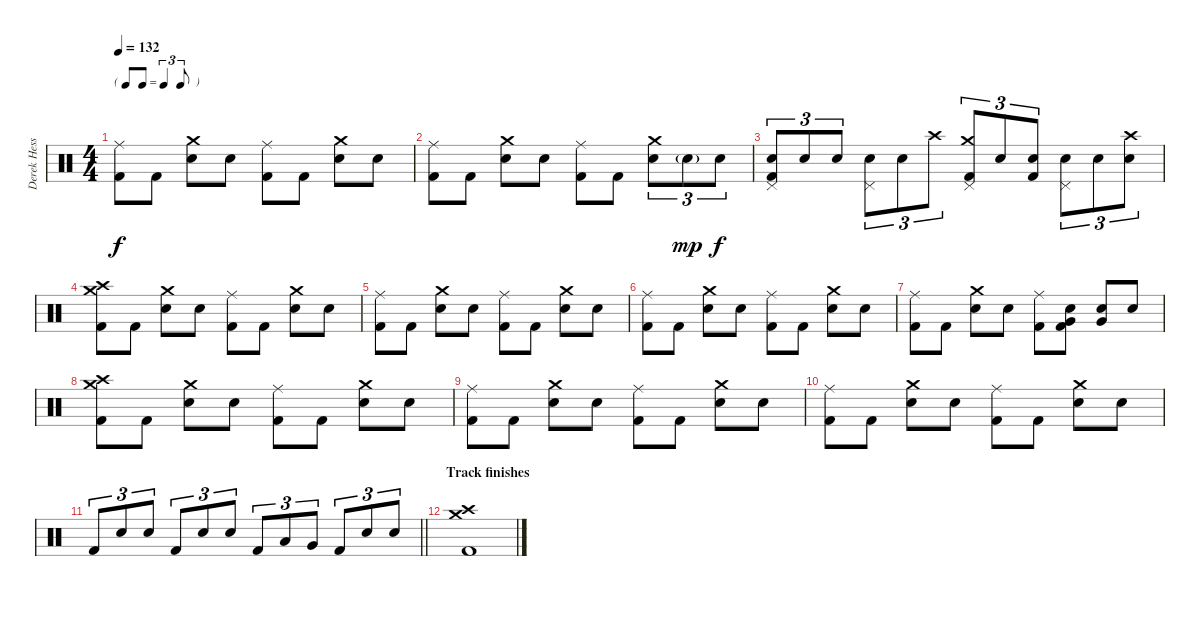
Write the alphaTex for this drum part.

\track ("Derek Hess (Drums and Percussion)" "Derek Hess") {instrument percussion}
\staff {score}
\articulation defaults
\ts (4 4)
\tf triplet8th
\tempo 132
\clef neutral
\ks c
("Ride (middle)" "Kick (hit) 2").8{dy f} "Kick (hit) 2".8 ("Crash medium (hit)" "Snare (hit) 2").8 "Snare (hit) 2".8 ("Ride (middle)" "Kick (hit) 2").8 "Kick (hit) 2".8 ("Crash medium (hit)" "Snare (hit) 2").8 "Snare (hit) 2".8 |
("Ride (middle)" "Kick (hit) 2").8 "Kick (hit) 2".8 ("Crash medium (hit)" "Snare (hit) 2").8 "Snare (hit) 2".8 ("Ride (middle)" "Kick (hit) 2").8 "Kick (hit) 2".8 ("Crash medium (hit)" "Snare (hit) 2").8{tu (3 2)} "Snare (hit) 2"{g}.8{tu (3 2) dy mp} "Snare (hit) 2".8{tu (3 2) dy f} |
("Snare (hit) 2" "Pedal Hi-Hat (hit)" "Kick (hit) 2").8{tu (3 2)} "Snare (hit) 2".8{tu (3 2)} "Snare (hit) 2".8{tu (3 2)} ("Snare (hit) 2" "Pedal Hi-Hat (hit)").8{tu (3 2)} "Snare (hit) 2".8{tu (3 2)} "Crash high (hit)".8{tu (3 2)} ("Crash medium (hit)" "Pedal Hi-Hat (hit)" "Kick (hit) 2").8{tu (3 2)} "Snare (hit) 2".8{tu (3 2)} ("Snare (hit) 2" "Kick (hit) 2").8{tu (3 2)} ("Snare (hit) 2" "Pedal Hi-Hat (hit)").8{tu (3 2)} "Snare (hit) 2".8{tu (3 2)} ("Crash high (hit)" "Snare (hit) 2").8{tu (3 2)} |
("Crash medium (hit)" "Crash high (hit)" "Kick (hit) 2").8 "Kick (hit) 2".8 ("Crash medium (hit)" "Snare (hit) 2").8 "Snare (hit) 2".8 ("Ride (middle)" "Kick (hit) 2").8 "Kick (hit) 2".8 ("Crash medium (hit)" "Snare (hit) 2").8 "Snare (hit) 2".8 |
("Ride (middle)" "Kick (hit) 2").8 "Kick (hit) 2".8 ("Crash medium (hit)" "Snare (hit) 2").8 "Snare (hit) 2".8 ("Ride (middle)" "Kick (hit) 2").8 "Kick (hit) 2".8 ("Crash medium (hit)" "Snare (hit) 2").8 "Snare (hit) 2".8 |
("Ride (middle)" "Kick (hit) 2").8 "Kick (hit) 2".8 ("Crash medium (hit)" "Snare (hit) 2").8 "Snare (hit) 2".8 ("Ride (middle)" "Kick (hit) 2").8 "Kick (hit) 2".8 ("Crash medium (hit)" "Snare (hit) 2").8 "Snare (hit) 2".8 |
("Ride (middle)" "Kick (hit) 2").8 "Kick (hit) 2".8 ("Crash medium (hit)" "Snare (hit) 2").8 "Snare (hit) 2".8 ("Ride (middle)" "Kick (hit) 2").8 ("Snare (hit) 2" "Very Low Tom (hit)" "Kick (hit) 2").8 ("Snare (hit) 2" "Very Low Tom (hit)").8 "Snare (hit) 2".8 |
("Crash medium (hit)" "Crash high (hit)" "Kick (hit) 2").8 "Kick (hit) 2".8 ("Crash medium (hit)" "Snare (hit) 2").8 "Snare (hit) 2".8 ("Ride (middle)" "Kick (hit) 2").8 "Kick (hit) 2".8 ("Crash medium (hit)" "Snare (hit) 2").8 "Snare (hit) 2".8 |
("Ride (middle)" "Kick (hit) 2").8 "Kick (hit) 2".8 ("Crash medium (hit)" "Snare (hit) 2").8 "Snare (hit) 2".8 ("Ride (middle)" "Kick (hit) 2").8 "Kick (hit) 2".8 ("Crash medium (hit)" "Snare (hit) 2").8 "Snare (hit) 2".8 |
("Ride (middle)" "Kick (hit) 2").8 "Kick (hit) 2".8 ("Crash medium (hit)" "Snare (hit) 2").8 "Snare (hit) 2".8 ("Ride (middle)" "Kick (hit) 2").8 "Kick (hit) 2".8 ("Crash medium (hit)" "Snare (hit) 2").8 "Snare (hit) 2".8 |
\barLineRight lightlight "Kick (hit) 2".8{tu (3 2)} "Snare (hit) 2".8{tu (3 2)} "Snare (hit) 2".8{tu (3 2)} "Kick (hit) 2".8{tu (3 2)} "Snare (hit) 2".8{tu (3 2)} "Snare (hit) 2".8{tu (3 2)} "Kick (hit) 2".8{tu (3 2)} "Low Tom (hit)".8{tu (3 2)} "Very Low Tom (hit)".8{tu (3 2)} "Kick (hit) 2".8{tu (3 2)} "Snare (hit) 2".8{tu (3 2)} "Snare (hit) 2".8{tu (3 2)}
|
\section ("" "Track finishes")
("Crash medium (hit)" "Crash high (hit)" "Kick (hit) 2").1
